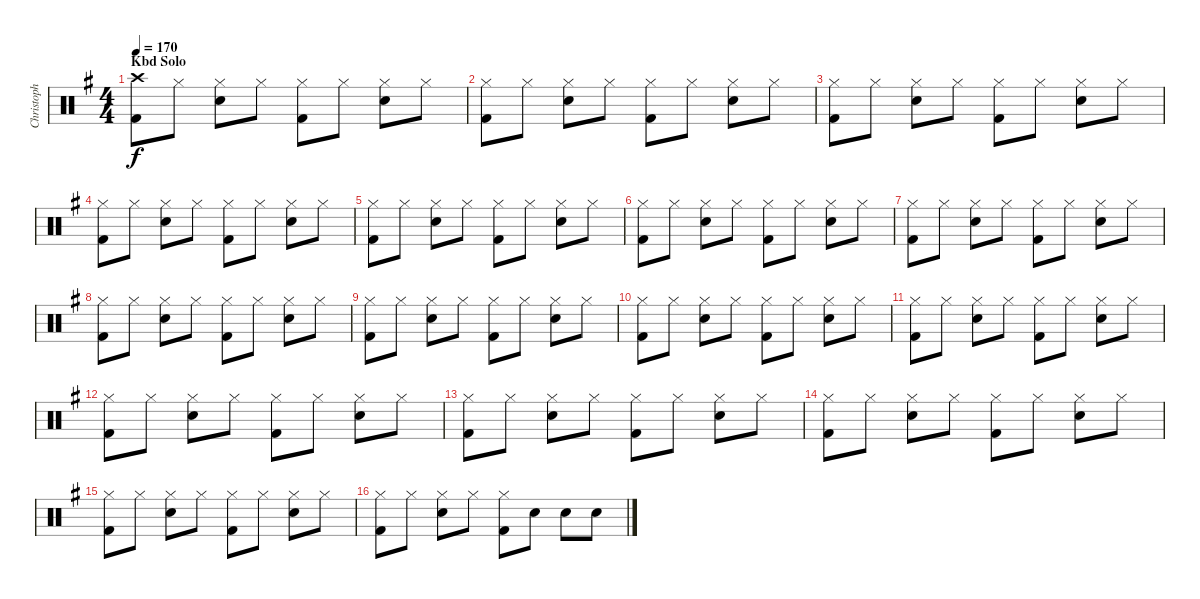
\track ("Christoph Doom Schneider - Drums" "Christoph ") {instrument percussion}
\staff {score}
\articulation defaults
\ts (4 4)
\section ("" "Kbd Solo")
\tempo 170
\clef neutral
\ks g
("Crash high (hit)" "Kick (hit) 2").8{dy f} "Hi-Hat (closed)".8 ("Hi-Hat (closed)" "Electric Snare (hit)").8 "Hi-Hat (closed)".8 ("Hi-Hat (closed)" "Kick (hit) 2").8 "Hi-Hat (closed)".8 ("Hi-Hat (closed)" "Electric Snare (hit)").8 "Hi-Hat (closed)".8 |
("Hi-Hat (closed)" "Kick (hit) 2").8 "Hi-Hat (closed)".8 ("Hi-Hat (closed)" "Electric Snare (hit)").8 "Hi-Hat (closed)".8 ("Hi-Hat (closed)" "Kick (hit) 2").8 "Hi-Hat (closed)".8 ("Hi-Hat (closed)" "Electric Snare (hit)").8 "Hi-Hat (closed)".8 |
("Hi-Hat (closed)" "Kick (hit) 2").8 "Hi-Hat (closed)".8 ("Hi-Hat (closed)" "Electric Snare (hit)").8 "Hi-Hat (closed)".8 ("Hi-Hat (closed)" "Kick (hit) 2").8 "Hi-Hat (closed)".8 ("Hi-Hat (closed)" "Electric Snare (hit)").8 "Hi-Hat (closed)".8 |
("Hi-Hat (closed)" "Kick (hit) 2").8 "Hi-Hat (closed)".8 ("Hi-Hat (closed)" "Electric Snare (hit)").8 "Hi-Hat (closed)".8 ("Hi-Hat (closed)" "Kick (hit) 2").8 "Hi-Hat (closed)".8 ("Hi-Hat (closed)" "Electric Snare (hit)").8 "Hi-Hat (closed)".8 |
("Hi-Hat (closed)" "Kick (hit) 2").8 "Hi-Hat (closed)".8 ("Hi-Hat (closed)" "Electric Snare (hit)").8 "Hi-Hat (closed)".8 ("Hi-Hat (closed)" "Kick (hit) 2").8 "Hi-Hat (closed)".8 ("Hi-Hat (closed)" "Electric Snare (hit)").8 "Hi-Hat (closed)".8 |
("Hi-Hat (closed)" "Kick (hit) 2").8 "Hi-Hat (closed)".8 ("Hi-Hat (closed)" "Electric Snare (hit)").8 "Hi-Hat (closed)".8 ("Hi-Hat (closed)" "Kick (hit) 2").8 "Hi-Hat (closed)".8 ("Hi-Hat (closed)" "Electric Snare (hit)").8 "Hi-Hat (closed)".8 |
("Hi-Hat (closed)" "Kick (hit) 2").8 "Hi-Hat (closed)".8 ("Hi-Hat (closed)" "Electric Snare (hit)").8 "Hi-Hat (closed)".8 ("Hi-Hat (closed)" "Kick (hit) 2").8 "Hi-Hat (closed)".8 ("Hi-Hat (closed)" "Electric Snare (hit)").8 "Hi-Hat (closed)".8 |
("Hi-Hat (closed)" "Kick (hit) 2").8 "Hi-Hat (closed)".8 ("Hi-Hat (closed)" "Electric Snare (hit)").8 "Hi-Hat (closed)".8 ("Hi-Hat (closed)" "Kick (hit) 2").8 "Hi-Hat (closed)".8 ("Hi-Hat (closed)" "Electric Snare (hit)").8 "Hi-Hat (closed)".8 |
("Hi-Hat (closed)" "Kick (hit) 2").8 "Hi-Hat (closed)".8 ("Hi-Hat (closed)" "Electric Snare (hit)").8 "Hi-Hat (closed)".8 ("Hi-Hat (closed)" "Kick (hit) 2").8 "Hi-Hat (closed)".8 ("Hi-Hat (closed)" "Electric Snare (hit)").8 "Hi-Hat (closed)".8 |
("Hi-Hat (closed)" "Kick (hit) 2").8 "Hi-Hat (closed)".8 ("Hi-Hat (closed)" "Electric Snare (hit)").8 "Hi-Hat (closed)".8 ("Hi-Hat (closed)" "Kick (hit) 2").8 "Hi-Hat (closed)".8 ("Hi-Hat (closed)" "Electric Snare (hit)").8 "Hi-Hat (closed)".8 |
("Hi-Hat (closed)" "Kick (hit) 2").8 "Hi-Hat (closed)".8 ("Hi-Hat (closed)" "Electric Snare (hit)").8 "Hi-Hat (closed)".8 ("Hi-Hat (closed)" "Kick (hit) 2").8 "Hi-Hat (closed)".8 ("Hi-Hat (closed)" "Electric Snare (hit)").8 "Hi-Hat (closed)".8 |
("Hi-Hat (closed)" "Kick (hit) 2").8 "Hi-Hat (closed)".8 ("Hi-Hat (closed)" "Electric Snare (hit)").8 "Hi-Hat (closed)".8 ("Hi-Hat (closed)" "Kick (hit) 2").8 "Hi-Hat (closed)".8 ("Hi-Hat (closed)" "Electric Snare (hit)").8 "Hi-Hat (closed)".8 |
("Hi-Hat (closed)" "Kick (hit) 2").8 "Hi-Hat (closed)".8 ("Hi-Hat (closed)" "Electric Snare (hit)").8 "Hi-Hat (closed)".8 ("Hi-Hat (closed)" "Kick (hit) 2").8 "Hi-Hat (closed)".8 ("Hi-Hat (closed)" "Electric Snare (hit)").8 "Hi-Hat (closed)".8 |
("Hi-Hat (closed)" "Kick (hit) 2").8 "Hi-Hat (closed)".8 ("Hi-Hat (closed)" "Electric Snare (hit)").8 "Hi-Hat (closed)".8 ("Hi-Hat (closed)" "Kick (hit) 2").8 "Hi-Hat (closed)".8 ("Hi-Hat (closed)" "Electric Snare (hit)").8 "Hi-Hat (closed)".8 |
("Hi-Hat (closed)" "Kick (hit) 2").8 "Hi-Hat (closed)".8 ("Hi-Hat (closed)" "Electric Snare (hit)").8 "Hi-Hat (closed)".8 ("Hi-Hat (closed)" "Kick (hit) 2").8 "Hi-Hat (closed)".8 ("Hi-Hat (closed)" "Electric Snare (hit)").8 "Hi-Hat (closed)".8 |
("Hi-Hat (closed)" "Kick (hit) 2").8 "Hi-Hat (closed)".8 ("Hi-Hat (closed)" "Electric Snare (hit)").8 "Hi-Hat (closed)".8 ("Hi-Hat (closed)" "Kick (hit) 2").8 "Electric Snare (hit)".8 "Electric Snare (hit)".8 "Electric Snare (hit)".8
